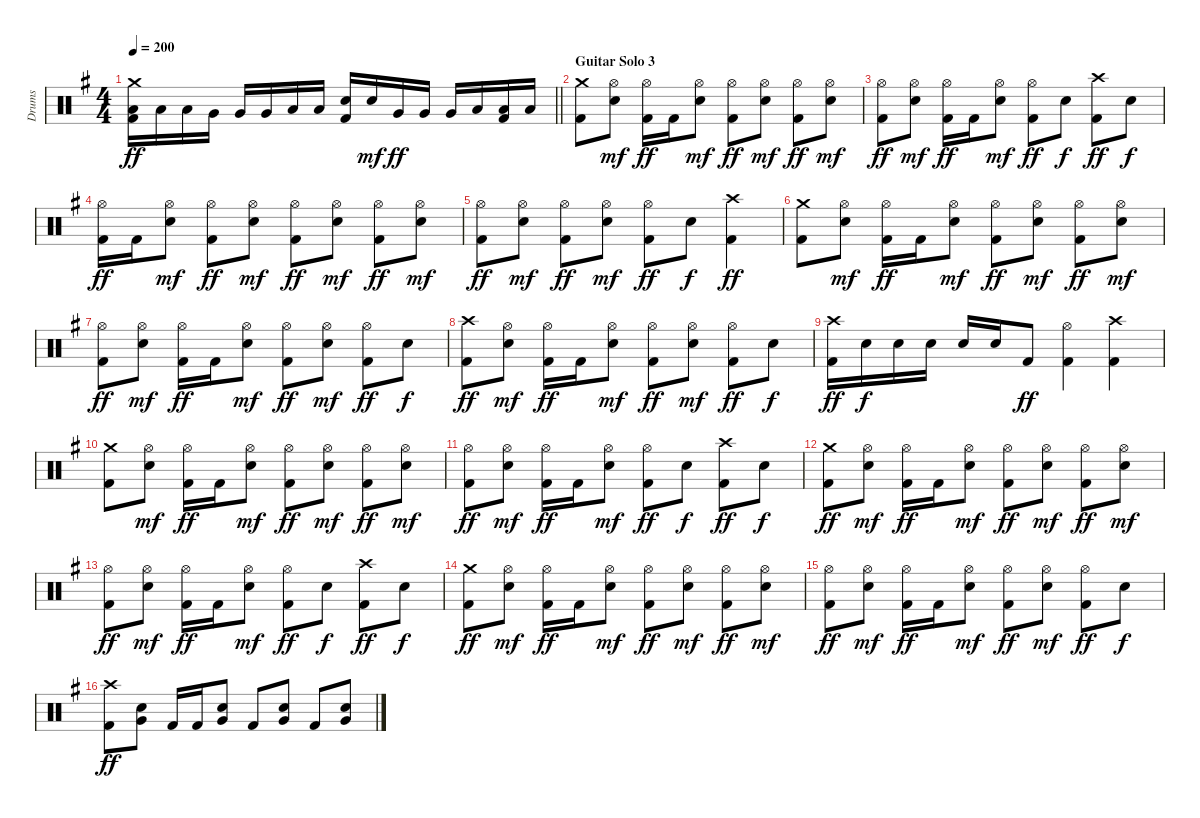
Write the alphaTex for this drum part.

\track ("Drums" "Drums") {instrument percussion}
\staff {score}
\articulation defaults
\ts (4 4)
\tempo 200
\clef neutral
\barLineRight lightlight
\ks g
("Crash medium (hit)" "Low Tom (hit)" "Kick (hit) 2").16{dy ff} "Low Tom (hit)".16 "Low Tom (hit)".16 "Very Low Tom (hit)".16 "Very Low Tom (hit)".16 "Very Low Tom (hit)".16 "Low Floor Tom (hit)".16 "Low Floor Tom (hit)".16 ("Snare (hit) 2" "Kick (hit) 2").16 "Snare (hit) 2".16{dy mf} "Very Low Tom (hit)".16{dy ff} "Very Low Tom (hit)".16 "Very Low Tom (hit)".16 "Low Floor Tom (hit)".16 ("Low Floor Tom (hit)" "Kick (hit) 2").16 "Low Floor Tom (hit)".16 |
\section ("" "Guitar Solo 3")
("Crash medium (hit)" "Kick (hit) 2").8 ("Hi-Hat (open)" "Snare (hit) 2").8{dy mf} ("Hi-Hat (open)" "Kick (hit) 2").16{dy ff} "Kick (hit) 2".16 ("Hi-Hat (open)" "Snare (hit) 2").8{dy mf} ("Hi-Hat (open)" "Kick (hit) 2").8{dy ff} ("Hi-Hat (open)" "Snare (hit) 2").8{dy mf} ("Hi-Hat (open)" "Kick (hit) 2").8{dy ff} ("Hi-Hat (open)" "Snare (hit) 2").8{dy mf} |
("Hi-Hat (open)" "Kick (hit) 2").8{dy ff} ("Hi-Hat (open)" "Snare (hit) 2").8{dy mf} ("Hi-Hat (open)" "Kick (hit) 2").16{dy ff} "Kick (hit) 2".16 ("Hi-Hat (open)" "Snare (hit) 2").8{dy mf} ("Hi-Hat (open)" "Kick (hit) 2").8{dy ff} "Snare (hit) 2".8{dy f} ("Crash high (hit)" "Kick (hit) 2").8{dy ff} "Snare (hit) 2".8{dy f} |
("Hi-Hat (open)" "Kick (hit) 2").16{dy ff} "Kick (hit) 2".16 ("Hi-Hat (open)" "Snare (hit) 2").8{dy mf} ("Hi-Hat (open)" "Kick (hit) 2").8{dy ff} ("Hi-Hat (open)" "Snare (hit) 2").8{dy mf} ("Hi-Hat (open)" "Kick (hit) 2").8{dy ff} ("Hi-Hat (open)" "Snare (hit) 2").8{dy mf} ("Hi-Hat (open)" "Kick (hit) 2").8{dy ff} ("Hi-Hat (open)" "Snare (hit) 2").8{dy mf} |
("Hi-Hat (open)" "Kick (hit) 2").8{dy ff} ("Hi-Hat (open)" "Snare (hit) 2").8{dy mf} ("Hi-Hat (open)" "Kick (hit) 2").8{dy ff} ("Hi-Hat (open)" "Snare (hit) 2").8{dy mf} ("Hi-Hat (open)" "Kick (hit) 2").8{dy ff} "Snare (hit) 2".8{dy f} ("Crash high (hit)" "Kick (hit) 2").4{dy ff} |
("Crash medium (hit)" "Kick (hit) 2").8 ("Hi-Hat (open)" "Snare (hit) 2").8{dy mf} ("Hi-Hat (open)" "Kick (hit) 2").16{dy ff} "Kick (hit) 2".16 ("Hi-Hat (open)" "Snare (hit) 2").8{dy mf} ("Hi-Hat (open)" "Kick (hit) 2").8{dy ff} ("Hi-Hat (open)" "Snare (hit) 2").8{dy mf} ("Hi-Hat (open)" "Kick (hit) 2").8{dy ff} ("Hi-Hat (open)" "Snare (hit) 2").8{dy mf} |
("Hi-Hat (open)" "Kick (hit) 2").8{dy ff} ("Hi-Hat (open)" "Snare (hit) 2").8{dy mf} ("Hi-Hat (open)" "Kick (hit) 2").16{dy ff} "Kick (hit) 2".16 ("Hi-Hat (open)" "Snare (hit) 2").8{dy mf} ("Hi-Hat (open)" "Kick (hit) 2").8{dy ff} ("Hi-Hat (open)" "Snare (hit) 2").8{dy mf} ("Hi-Hat (open)" "Kick (hit) 2").8{dy ff} "Snare (hit) 2".8{dy f} |
("Crash high (hit)" "Kick (hit) 2").8{dy ff} ("Hi-Hat (open)" "Snare (hit) 2").8{dy mf} ("Hi-Hat (open)" "Kick (hit) 2").16{dy ff} "Kick (hit) 2".16 ("Hi-Hat (open)" "Snare (hit) 2").8{dy mf} ("Hi-Hat (open)" "Kick (hit) 2").8{dy ff} ("Hi-Hat (open)" "Snare (hit) 2").8{dy mf} ("Hi-Hat (open)" "Kick (hit) 2").8{dy ff} "Snare (hit) 2".8{dy f} |
("Crash high (hit)" "Kick (hit) 2").16{dy ff} "Snare (hit) 2".16{dy f} "Snare (hit) 2".16 "Snare (hit) 2".16 "Snare (hit) 2".16 "Snare (hit) 2".16 "Kick (hit) 2".8{dy ff} ("Hi-Hat (open)" "Kick (hit) 2").4 ("Crash high (hit)" "Kick (hit) 2").4 |
("Crash medium (hit)" "Kick (hit) 2").8 ("Hi-Hat (open)" "Snare (hit) 2").8{dy mf} ("Hi-Hat (open)" "Kick (hit) 2").16{dy ff} "Kick (hit) 2".16 ("Hi-Hat (open)" "Snare (hit) 2").8{dy mf} ("Hi-Hat (open)" "Kick (hit) 2").8{dy ff} ("Hi-Hat (open)" "Snare (hit) 2").8{dy mf} ("Hi-Hat (open)" "Kick (hit) 2").8{dy ff} ("Hi-Hat (open)" "Snare (hit) 2").8{dy mf} |
("Hi-Hat (open)" "Kick (hit) 2").8{dy ff} ("Hi-Hat (open)" "Snare (hit) 2").8{dy mf} ("Hi-Hat (open)" "Kick (hit) 2").16{dy ff} "Kick (hit) 2".16 ("Hi-Hat (open)" "Snare (hit) 2").8{dy mf} ("Hi-Hat (open)" "Kick (hit) 2").8{dy ff} "Snare (hit) 2".8{dy f} ("Crash high (hit)" "Kick (hit) 2").8{dy ff} "Snare (hit) 2".8{dy f} |
("Crash medium (hit)" "Kick (hit) 2").8{dy ff} ("Hi-Hat (open)" "Snare (hit) 2").8{dy mf} ("Hi-Hat (open)" "Kick (hit) 2").16{dy ff} "Kick (hit) 2".16 ("Hi-Hat (open)" "Snare (hit) 2").8{dy mf} ("Hi-Hat (open)" "Kick (hit) 2").8{dy ff} ("Hi-Hat (open)" "Snare (hit) 2").8{dy mf} ("Hi-Hat (open)" "Kick (hit) 2").8{dy ff} ("Hi-Hat (open)" "Snare (hit) 2").8{dy mf} |
("Hi-Hat (open)" "Kick (hit) 2").8{dy ff} ("Hi-Hat (open)" "Snare (hit) 2").8{dy mf} ("Hi-Hat (open)" "Kick (hit) 2").16{dy ff} "Kick (hit) 2".16 ("Hi-Hat (open)" "Snare (hit) 2").8{dy mf} ("Hi-Hat (open)" "Kick (hit) 2").8{dy ff} "Snare (hit) 2".8{dy f} ("Crash high (hit)" "Kick (hit) 2").8{dy ff} "Snare (hit) 2".8{dy f} |
("Crash medium (hit)" "Kick (hit) 2").8{dy ff} ("Hi-Hat (open)" "Snare (hit) 2").8{dy mf} ("Hi-Hat (open)" "Kick (hit) 2").16{dy ff} "Kick (hit) 2".16 ("Hi-Hat (open)" "Snare (hit) 2").8{dy mf} ("Hi-Hat (open)" "Kick (hit) 2").8{dy ff} ("Hi-Hat (open)" "Snare (hit) 2").8{dy mf} ("Hi-Hat (open)" "Kick (hit) 2").8{dy ff} ("Hi-Hat (open)" "Snare (hit) 2").8{dy mf} |
("Hi-Hat (open)" "Kick (hit) 2").8{dy ff} ("Hi-Hat (open)" "Snare (hit) 2").8{dy mf} ("Hi-Hat (open)" "Kick (hit) 2").16{dy ff} "Kick (hit) 2".16 ("Hi-Hat (open)" "Snare (hit) 2").8{dy mf} ("Hi-Hat (open)" "Kick (hit) 2").8{dy ff} ("Hi-Hat (open)" "Snare (hit) 2").8{dy mf} ("Hi-Hat (open)" "Kick (hit) 2").8{dy ff} "Snare (hit) 2".8{dy f} |
("Crash high (hit)" "Kick (hit) 2").8{dy ff} ("Very Low Tom (hit)" "Snare (hit) 2").8 "Kick (hit) 2".16 "Kick (hit) 2".16 ("Very Low Tom (hit)" "Snare (hit) 2").8 "Kick (hit) 2".8 ("Very Low Tom (hit)" "Snare (hit) 2").8 "Kick (hit) 2".8 ("Very Low Tom (hit)" "Snare (hit) 2").8
